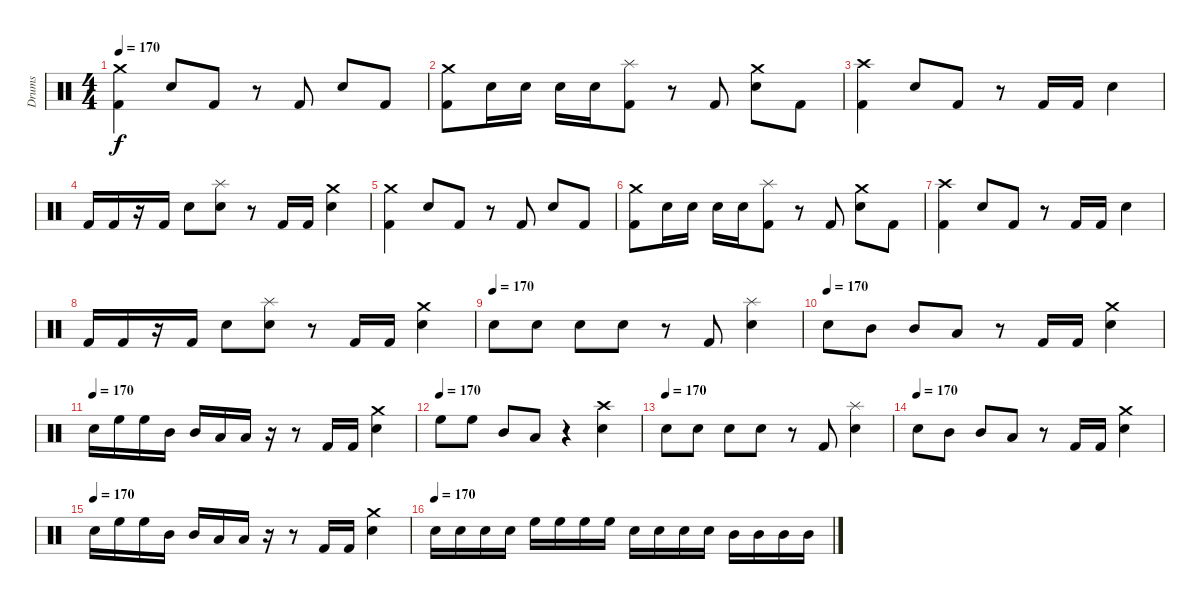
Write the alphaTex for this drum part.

\track ("Drums" "Drums") {instrument percussion}
\staff {score}
\articulation defaults
\ts (4 4)
\tempo 170
\clef neutral
\ks c
("Crash medium (hit)" "Kick (hit) 2").4{dy f} "Electric Snare (hit)".8 "Kick (hit) 2".8 r.8 "Kick (hit) 2".8 "Electric Snare (hit)".8 "Kick (hit) 2".8 |
("Crash medium (hit)" "Kick (hit) 2").8 "Electric Snare (hit)".16 "Electric Snare (hit)".16 "Electric Snare (hit)".16 "Electric Snare (hit)".16 ("Splash (hit)" "Kick (hit) 2").8 r.8 "Kick (hit) 2".8 ("Crash medium (hit)" "Electric Snare (hit)").8 "Kick (hit) 2".8 |
("Crash high (hit)" "Kick (hit) 2").4 "Electric Snare (hit)".8 "Kick (hit) 2".8 r.8 "Kick (hit) 2".16 "Kick (hit) 2".16 "Electric Snare (hit)".4 |
"Kick (hit) 2".16 "Kick (hit) 2".16 r.16 "Kick (hit) 2".16 "Electric Snare (hit)".8 ("Splash (hit)" "Electric Snare (hit)").8 r.8 "Kick (hit) 2".16 "Kick (hit) 2".16 ("Crash medium (hit)" "Electric Snare (hit)").4 |
("Crash medium (hit)" "Kick (hit) 2").4 "Electric Snare (hit)".8 "Kick (hit) 2".8 r.8 "Kick (hit) 2".8 "Electric Snare (hit)".8 "Kick (hit) 2".8 |
("Crash medium (hit)" "Kick (hit) 2").8 "Electric Snare (hit)".16 "Electric Snare (hit)".16 "Electric Snare (hit)".16 "Electric Snare (hit)".16 ("Splash (hit)" "Kick (hit) 2").8 r.8 "Kick (hit) 2".8 ("Crash medium (hit)" "Electric Snare (hit)").8 "Kick (hit) 2".8 |
("Crash high (hit)" "Kick (hit) 2").4 "Electric Snare (hit)".8 "Kick (hit) 2".8 r.8 "Kick (hit) 2".16 "Kick (hit) 2".16 "Electric Snare (hit)".4 |
"Kick (hit) 2".16 "Kick (hit) 2".16 r.16 "Kick (hit) 2".16 "Electric Snare (hit)".8 ("Splash (hit)" "Electric Snare (hit)").8 r.8 "Kick (hit) 2".16 "Kick (hit) 2".16 ("Crash medium (hit)" "Electric Snare (hit)").4 |
\tempo (170)
"Electric Snare (hit)".8 "Electric Snare (hit)".8 "Electric Snare (hit)".8 "Electric Snare (hit)".8 r.8 "Kick (hit) 2".8 ("Splash (hit)" "Electric Snare (hit)").4 |
\tempo (170)
"Electric Snare (hit)".8 "Mid Tom (hit)".8 "Mid Tom (hit)".8 "Low Tom (hit)".8 r.8 "Kick (hit) 2".16 "Kick (hit) 2".16 ("Crash medium (hit)" "Electric Snare (hit)").4 |
\tempo (170)
"Electric Snare (hit)".16 "High Floor Tom (hit)".16 "High Floor Tom (hit)".16 "Mid Tom (hit)".16 "Mid Tom (hit)".16 "Low Tom (hit)".16 "Low Tom (hit)".16 r.16 r.8 "Kick (hit) 2".16 "Kick (hit) 2".16 ("Crash medium (hit)" "Electric Snare (hit)").4 |
\tempo (170)
"High Floor Tom (hit)".8 "High Floor Tom (hit)".8 "Mid Tom (hit)".8 "Low Tom (hit)".8 r.4 ("Crash high (hit)" "Electric Snare (hit)").4 |
\tempo (170)
"Electric Snare (hit)".8 "Electric Snare (hit)".8 "Electric Snare (hit)".8 "Electric Snare (hit)".8 r.8 "Kick (hit) 2".8 ("Splash (hit)" "Electric Snare (hit)").4 |
\tempo (170)
"Electric Snare (hit)".8 "Mid Tom (hit)".8 "Mid Tom (hit)".8 "Low Tom (hit)".8 r.8 "Kick (hit) 2".16 "Kick (hit) 2".16 ("Crash medium (hit)" "Electric Snare (hit)").4 |
\tempo (170)
"Electric Snare (hit)".16 "High Floor Tom (hit)".16 "High Floor Tom (hit)".16 "Mid Tom (hit)".16 "Mid Tom (hit)".16 "Low Tom (hit)".16 "Low Tom (hit)".16 r.16 r.8 "Kick (hit) 2".16 "Kick (hit) 2".16 ("Crash medium (hit)" "Electric Snare (hit)").4 |
\tempo (170)
"Electric Snare (hit)".16 "Electric Snare (hit)".16 "Electric Snare (hit)".16 "Electric Snare (hit)".16 "High Floor Tom (hit)".16 "High Floor Tom (hit)".16 "High Floor Tom (hit)".16 "High Floor Tom (hit)".16 "Electric Snare (hit)".16 "Electric Snare (hit)".16 "Electric Snare (hit)".16 "Electric Snare (hit)".16 "Mid Tom (hit)".16 "Mid Tom (hit)".16 "Mid Tom (hit)".16 "Mid Tom (hit)".16
